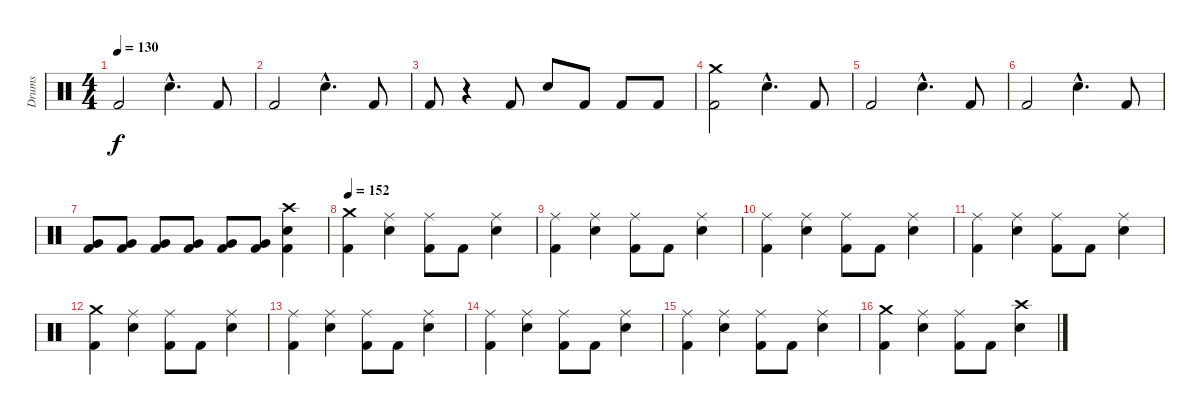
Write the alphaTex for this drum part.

\track ("Drums" "Drums") {instrument percussion}
\staff {score}
\articulation defaults
\ts (4 4)
\tempo 130
\clef neutral
\ks c "Kick (hit) 2".2{dy f} "Electric Snare (hit)"{hac}.4{d} "Kick (hit) 2".8
|
"Kick (hit) 2".2 "Electric Snare (hit)"{hac}.4{d} "Kick (hit) 2".8 |
"Kick (hit) 2".8 r.4 "Kick (hit) 2".8 "Electric Snare (hit)".8 "Kick (hit) 2".8 "Kick (hit) 2".8 "Kick (hit) 2".8 |
("Crash medium (hit)" "Kick (hit) 2").2 "Electric Snare (hit)"{hac}.4{d} "Kick (hit) 2".8 |
"Kick (hit) 2".2 "Electric Snare (hit)"{hac}.4{d} "Kick (hit) 2".8 |
"Kick (hit) 2".2 "Electric Snare (hit)"{hac}.4{d} "Kick (hit) 2".8 |
("Very Low Tom (hit)" "Kick (hit) 2").8 ("Very Low Tom (hit)" "Kick (hit) 2").8 ("Very Low Tom (hit)" "Kick (hit) 2").8 ("Very Low Tom (hit)" "Kick (hit) 2").8 ("Very Low Tom (hit)" "Kick (hit) 2").8 ("Very Low Tom (hit)" "Kick (hit) 2").8 ("Crash high (hit)" "Electric Snare (hit)" "Kick (hit) 2").4 |
\section ("" "")
\tempo 152
("Crash medium (hit)" "Kick (hit) 2").4 ("Ride (middle)" "Electric Snare (hit)").4 ("Ride (middle)" "Kick (hit) 2").8 "Kick (hit) 2".8 ("Ride (middle)" "Electric Snare (hit)").4 |
("Ride (middle)" "Kick (hit) 2").4 ("Ride (middle)" "Electric Snare (hit)").4 ("Ride (middle)" "Kick (hit) 2").8 "Kick (hit) 2".8 ("Ride (middle)" "Electric Snare (hit)").4 |
("Ride (middle)" "Kick (hit) 2").4 ("Ride (middle)" "Electric Snare (hit)").4 ("Ride (middle)" "Kick (hit) 2").8 "Kick (hit) 2".8 ("Ride (middle)" "Electric Snare (hit)").4 |
("Ride (middle)" "Kick (hit) 2").4 ("Ride (middle)" "Electric Snare (hit)").4 ("Ride (middle)" "Kick (hit) 2").8 "Kick (hit) 2".8 ("Ride (middle)" "Electric Snare (hit)").4 |
("Crash medium (hit)" "Kick (hit) 2").4 ("Ride (middle)" "Electric Snare (hit)").4 ("Ride (middle)" "Kick (hit) 2").8 "Kick (hit) 2".8 ("Ride (middle)" "Electric Snare (hit)").4 |
("Ride (middle)" "Kick (hit) 2").4 ("Ride (middle)" "Electric Snare (hit)").4 ("Ride (middle)" "Kick (hit) 2").8 "Kick (hit) 2".8 ("Ride (middle)" "Electric Snare (hit)").4 |
("Ride (middle)" "Kick (hit) 2").4 ("Ride (middle)" "Electric Snare (hit)").4 ("Ride (middle)" "Kick (hit) 2").8 "Kick (hit) 2".8 ("Ride (middle)" "Electric Snare (hit)").4 |
("Ride (middle)" "Kick (hit) 2").4 ("Ride (middle)" "Electric Snare (hit)").4 ("Ride (middle)" "Kick (hit) 2").8 "Kick (hit) 2".8 ("Ride (middle)" "Electric Snare (hit)").4 |
\section ("" "")
("Crash medium (hit)" "Kick (hit) 2").4 ("Ride (middle)" "Electric Snare (hit)").4 ("Ride (middle)" "Kick (hit) 2").8 "Kick (hit) 2".8 ("Crash high (hit)" "Electric Snare (hit)").4
